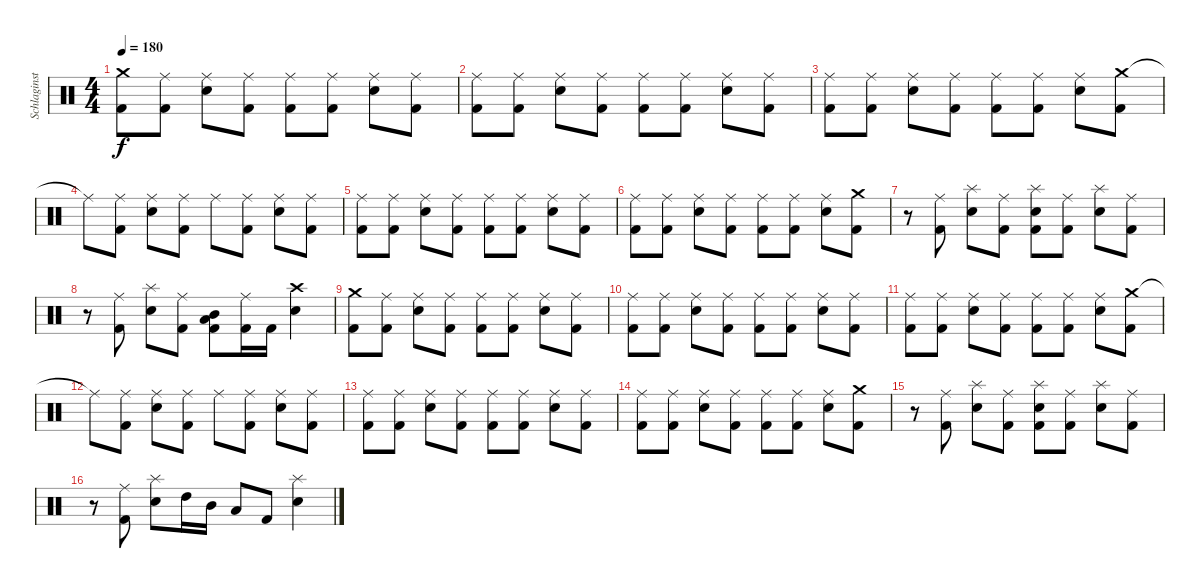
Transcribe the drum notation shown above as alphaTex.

\track ("Schlaginstrumente - Auswahl" "Schlaginst") {instrument percussion}
\staff {score}
\articulation defaults
\ts (4 4)
\tempo 180
\clef neutral
\ks c
("Crash medium (hit)" "Kick (hit) 2").8{dy f} ("Ride (middle)" "Kick (hit) 2").8 ("Ride (middle)" "Electric Snare (hit)").8 ("Ride (middle)" "Kick (hit) 2").8 ("Ride (middle)" "Kick (hit) 2").8 ("Ride (middle)" "Kick (hit) 2").8 ("Ride (middle)" "Electric Snare (hit)").8 ("Ride (middle)" "Kick (hit) 2").8 |
("Ride (middle)" "Kick (hit) 2").8 ("Ride (middle)" "Kick (hit) 2").8 ("Ride (middle)" "Electric Snare (hit)").8 ("Ride (middle)" "Kick (hit) 2").8 ("Ride (middle)" "Kick (hit) 2").8 ("Ride (middle)" "Kick (hit) 2").8 ("Ride (middle)" "Electric Snare (hit)").8 ("Ride (middle)" "Kick (hit) 2").8 |
("Ride (middle)" "Kick (hit) 2").8 ("Ride (middle)" "Kick (hit) 2").8 ("Ride (middle)" "Electric Snare (hit)").8 ("Ride (middle)" "Kick (hit) 2").8 ("Ride (middle)" "Kick (hit) 2").8 ("Ride (middle)" "Kick (hit) 2").8 ("Ride (middle)" "Electric Snare (hit)").8 ("Crash medium (hit)" "Kick (hit) 2").8 |
"Ride (middle)"{t}.8 ("Ride (middle)" "Kick (hit) 2").8 ("Ride (middle)" "Electric Snare (hit)").8 ("Ride (middle)" "Kick (hit) 2").8 "Ride (middle)".8 ("Ride (middle)" "Kick (hit) 2").8 ("Ride (middle)" "Electric Snare (hit)").8 ("Ride (middle)" "Kick (hit) 2").8 |
("Ride (middle)" "Kick (hit) 2").8 ("Ride (middle)" "Kick (hit) 2").8 ("Ride (middle)" "Electric Snare (hit)").8 ("Ride (middle)" "Kick (hit) 2").8 ("Ride (middle)" "Kick (hit) 2").8 ("Ride (middle)" "Kick (hit) 2").8 ("Ride (middle)" "Electric Snare (hit)").8 ("Ride (middle)" "Kick (hit) 2").8 |
("Ride (middle)" "Kick (hit) 2").8 ("Ride (middle)" "Kick (hit) 2").8 ("Ride (middle)" "Electric Snare (hit)").8 ("Ride (middle)" "Kick (hit) 2").8 ("Ride (middle)" "Kick (hit) 2").8 ("Ride (middle)" "Kick (hit) 2").8 ("Ride (middle)" "Electric Snare (hit)").8 ("Crash medium (hit)" "Kick (hit) 2").8 |
r.8 ("Ride (middle)" "Kick (hit) 2").8 ("Splash (hit)" "Electric Snare (hit)").8 ("Ride (middle)" "Kick (hit) 2").8 ("Splash (hit)" "Electric Snare (hit)" "Kick (hit) 2").8 ("Ride (middle)" "Kick (hit) 2").8 ("Splash (hit)" "Electric Snare (hit)").8 ("Ride (middle)" "Kick (hit) 2").8 |
r.8 ("Ride (middle)" "Kick (hit) 2").8 ("Splash (hit)" "Electric Snare (hit)").8 ("Ride (middle)" "Kick (hit) 2").8 ("Mid Tom (hit)" "Low Tom (hit)" "Kick (hit) 2").8 ("Ride (middle)" "Kick (hit) 2").16 "Kick (hit) 2".16 ("Crash high (hit)" "Electric Snare (hit)").4 |
("Crash medium (hit)" "Kick (hit) 2").8 ("Ride (middle)" "Kick (hit) 2").8 ("Ride (middle)" "Electric Snare (hit)").8 ("Ride (middle)" "Kick (hit) 2").8 ("Ride (middle)" "Kick (hit) 2").8 ("Ride (middle)" "Kick (hit) 2").8 ("Ride (middle)" "Electric Snare (hit)").8 ("Ride (middle)" "Kick (hit) 2").8 |
("Ride (middle)" "Kick (hit) 2").8 ("Ride (middle)" "Kick (hit) 2").8 ("Ride (middle)" "Electric Snare (hit)").8 ("Ride (middle)" "Kick (hit) 2").8 ("Ride (middle)" "Kick (hit) 2").8 ("Ride (middle)" "Kick (hit) 2").8 ("Ride (middle)" "Electric Snare (hit)").8 ("Ride (middle)" "Kick (hit) 2").8 |
("Ride (middle)" "Kick (hit) 2").8 ("Ride (middle)" "Kick (hit) 2").8 ("Ride (middle)" "Electric Snare (hit)").8 ("Ride (middle)" "Kick (hit) 2").8 ("Ride (middle)" "Kick (hit) 2").8 ("Ride (middle)" "Kick (hit) 2").8 ("Ride (middle)" "Electric Snare (hit)").8 ("Crash medium (hit)" "Kick (hit) 2").8 |
"Ride (middle)"{t}.8 ("Ride (middle)" "Kick (hit) 2").8 ("Ride (middle)" "Electric Snare (hit)").8 ("Ride (middle)" "Kick (hit) 2").8 "Ride (middle)".8 ("Ride (middle)" "Kick (hit) 2").8 ("Ride (middle)" "Electric Snare (hit)").8 ("Ride (middle)" "Kick (hit) 2").8 |
("Ride (middle)" "Kick (hit) 2").8 ("Ride (middle)" "Kick (hit) 2").8 ("Ride (middle)" "Electric Snare (hit)").8 ("Ride (middle)" "Kick (hit) 2").8 ("Ride (middle)" "Kick (hit) 2").8 ("Ride (middle)" "Kick (hit) 2").8 ("Ride (middle)" "Electric Snare (hit)").8 ("Ride (middle)" "Kick (hit) 2").8 |
("Ride (middle)" "Kick (hit) 2").8 ("Ride (middle)" "Kick (hit) 2").8 ("Ride (middle)" "Electric Snare (hit)").8 ("Ride (middle)" "Kick (hit) 2").8 ("Ride (middle)" "Kick (hit) 2").8 ("Ride (middle)" "Kick (hit) 2").8 ("Ride (middle)" "Electric Snare (hit)").8 ("Crash medium (hit)" "Kick (hit) 2").8 |
r.8 ("Ride (middle)" "Kick (hit) 2").8 ("Splash (hit)" "Electric Snare (hit)").8 ("Ride (middle)" "Kick (hit) 2").8 ("Splash (hit)" "Electric Snare (hit)" "Kick (hit) 2").8 ("Ride (middle)" "Kick (hit) 2").8 ("Splash (hit)" "Electric Snare (hit)").8 ("Ride (middle)" "Kick (hit) 2").8 |
r.8 ("Ride (middle)" "Kick (hit) 2").8 ("Splash (hit)" "Electric Snare (hit)").8 "High Tom (hit)".16 "Mid Tom (hit)".16 "Low Tom (hit)".8 "Kick (hit) 2".8 ("Splash (hit)" "Electric Snare (hit)").4
